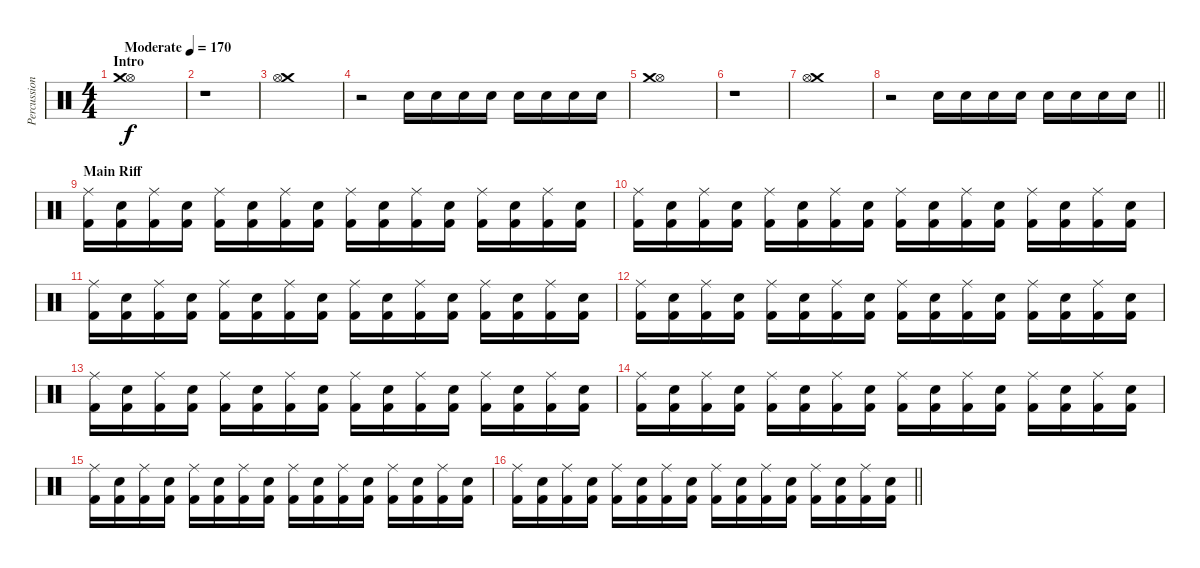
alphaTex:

\track ("Percussion" "Percussion") {instrument percussion}
\staff {score}
\articulation defaults
\ts (4 4)
\section ("" "Intro")
\tempo (170 "Moderate")
\clef neutral
\ks c
("Hi-Hat (open)" "Crash medium (hit)").1{dy f} |
r.1 |
("Crash medium (hit)" "Hi-Hat (open)").1 |
r.2 "Electric Snare (hit)".16 "Electric Snare (hit)".16 "Electric Snare (hit)".16 "Electric Snare (hit)".16 "Electric Snare (hit)".16 "Electric Snare (hit)".16 "Electric Snare (hit)".16 "Electric Snare (hit)".16 |
("Hi-Hat (open)" "Crash medium (hit)").1 |
r.1 |
("Crash medium (hit)" "Hi-Hat (open)").1 |
\barLineRight lightlight
r.2 "Electric Snare (hit)".16 "Electric Snare (hit)".16 "Electric Snare (hit)".16 "Electric Snare (hit)".16 "Electric Snare (hit)".16 "Electric Snare (hit)".16 "Electric Snare (hit)".16 "Electric Snare (hit)".16 |
\section ("" "Main Riff")
("Ride (middle)" "Kick (hit) 2").16 ("Electric Snare (hit)" "Kick (hit) 2").16 ("Ride (middle)" "Kick (hit) 2").16 ("Electric Snare (hit)" "Kick (hit) 2").16 ("Ride (middle)" "Kick (hit) 2").16 ("Electric Snare (hit)" "Kick (hit) 2").16 ("Ride (middle)" "Kick (hit) 2").16 ("Electric Snare (hit)" "Kick (hit) 2").16 ("Ride (middle)" "Kick (hit) 2").16 ("Electric Snare (hit)" "Kick (hit) 2").16 ("Ride (middle)" "Kick (hit) 2").16 ("Electric Snare (hit)" "Kick (hit) 2").16 ("Ride (middle)" "Kick (hit) 2").16 ("Electric Snare (hit)" "Kick (hit) 2").16 ("Ride (middle)" "Kick (hit) 2").16 ("Electric Snare (hit)" "Kick (hit) 2").16 |
("Ride (middle)" "Kick (hit) 2").16 ("Electric Snare (hit)" "Kick (hit) 2").16 ("Ride (middle)" "Kick (hit) 2").16 ("Electric Snare (hit)" "Kick (hit) 2").16 ("Ride (middle)" "Kick (hit) 2").16 ("Electric Snare (hit)" "Kick (hit) 2").16 ("Ride (middle)" "Kick (hit) 2").16 ("Electric Snare (hit)" "Kick (hit) 2").16 ("Ride (middle)" "Kick (hit) 2").16 ("Electric Snare (hit)" "Kick (hit) 2").16 ("Ride (middle)" "Kick (hit) 2").16 ("Electric Snare (hit)" "Kick (hit) 2").16 ("Ride (middle)" "Kick (hit) 2").16 ("Electric Snare (hit)" "Kick (hit) 2").16 ("Ride (middle)" "Kick (hit) 2").16 ("Electric Snare (hit)" "Kick (hit) 2").16 |
("Ride (middle)" "Kick (hit) 2").16 ("Electric Snare (hit)" "Kick (hit) 2").16 ("Ride (middle)" "Kick (hit) 2").16 ("Electric Snare (hit)" "Kick (hit) 2").16 ("Ride (middle)" "Kick (hit) 2").16 ("Electric Snare (hit)" "Kick (hit) 2").16 ("Ride (middle)" "Kick (hit) 2").16 ("Electric Snare (hit)" "Kick (hit) 2").16 ("Ride (middle)" "Kick (hit) 2").16 ("Electric Snare (hit)" "Kick (hit) 2").16 ("Ride (middle)" "Kick (hit) 2").16 ("Electric Snare (hit)" "Kick (hit) 2").16 ("Ride (middle)" "Kick (hit) 2").16 ("Electric Snare (hit)" "Kick (hit) 2").16 ("Ride (middle)" "Kick (hit) 2").16 ("Electric Snare (hit)" "Kick (hit) 2").16 |
("Ride (middle)" "Kick (hit) 2").16 ("Electric Snare (hit)" "Kick (hit) 2").16 ("Ride (middle)" "Kick (hit) 2").16 ("Electric Snare (hit)" "Kick (hit) 2").16 ("Ride (middle)" "Kick (hit) 2").16 ("Electric Snare (hit)" "Kick (hit) 2").16 ("Ride (middle)" "Kick (hit) 2").16 ("Electric Snare (hit)" "Kick (hit) 2").16 ("Ride (middle)" "Kick (hit) 2").16 ("Electric Snare (hit)" "Kick (hit) 2").16 ("Ride (middle)" "Kick (hit) 2").16 ("Electric Snare (hit)" "Kick (hit) 2").16 ("Ride (middle)" "Kick (hit) 2").16 ("Electric Snare (hit)" "Kick (hit) 2").16 ("Ride (middle)" "Kick (hit) 2").16 ("Electric Snare (hit)" "Kick (hit) 2").16 |
("Ride (middle)" "Kick (hit) 2").16 ("Electric Snare (hit)" "Kick (hit) 2").16 ("Ride (middle)" "Kick (hit) 2").16 ("Electric Snare (hit)" "Kick (hit) 2").16 ("Ride (middle)" "Kick (hit) 2").16 ("Electric Snare (hit)" "Kick (hit) 2").16 ("Ride (middle)" "Kick (hit) 2").16 ("Electric Snare (hit)" "Kick (hit) 2").16 ("Ride (middle)" "Kick (hit) 2").16 ("Electric Snare (hit)" "Kick (hit) 2").16 ("Ride (middle)" "Kick (hit) 2").16 ("Electric Snare (hit)" "Kick (hit) 2").16 ("Ride (middle)" "Kick (hit) 2").16 ("Electric Snare (hit)" "Kick (hit) 2").16 ("Ride (middle)" "Kick (hit) 2").16 ("Electric Snare (hit)" "Kick (hit) 2").16 |
("Ride (middle)" "Kick (hit) 2").16 ("Electric Snare (hit)" "Kick (hit) 2").16 ("Ride (middle)" "Kick (hit) 2").16 ("Electric Snare (hit)" "Kick (hit) 2").16 ("Ride (middle)" "Kick (hit) 2").16 ("Electric Snare (hit)" "Kick (hit) 2").16 ("Ride (middle)" "Kick (hit) 2").16 ("Electric Snare (hit)" "Kick (hit) 2").16 ("Ride (middle)" "Kick (hit) 2").16 ("Electric Snare (hit)" "Kick (hit) 2").16 ("Ride (middle)" "Kick (hit) 2").16 ("Electric Snare (hit)" "Kick (hit) 2").16 ("Ride (middle)" "Kick (hit) 2").16 ("Electric Snare (hit)" "Kick (hit) 2").16 ("Ride (middle)" "Kick (hit) 2").16 ("Electric Snare (hit)" "Kick (hit) 2").16 |
("Ride (middle)" "Kick (hit) 2").16 ("Electric Snare (hit)" "Kick (hit) 2").16 ("Ride (middle)" "Kick (hit) 2").16 ("Electric Snare (hit)" "Kick (hit) 2").16 ("Ride (middle)" "Kick (hit) 2").16 ("Electric Snare (hit)" "Kick (hit) 2").16 ("Ride (middle)" "Kick (hit) 2").16 ("Electric Snare (hit)" "Kick (hit) 2").16 ("Ride (middle)" "Kick (hit) 2").16 ("Electric Snare (hit)" "Kick (hit) 2").16 ("Ride (middle)" "Kick (hit) 2").16 ("Electric Snare (hit)" "Kick (hit) 2").16 ("Ride (middle)" "Kick (hit) 2").16 ("Electric Snare (hit)" "Kick (hit) 2").16 ("Ride (middle)" "Kick (hit) 2").16 ("Electric Snare (hit)" "Kick (hit) 2").16 |
\barLineRight lightlight
("Ride (middle)" "Kick (hit) 2").16 ("Electric Snare (hit)" "Kick (hit) 2").16 ("Ride (middle)" "Kick (hit) 2").16 ("Electric Snare (hit)" "Kick (hit) 2").16 ("Ride (middle)" "Kick (hit) 2").16 ("Electric Snare (hit)" "Kick (hit) 2").16 ("Ride (middle)" "Kick (hit) 2").16 ("Electric Snare (hit)" "Kick (hit) 2").16 ("Ride (middle)" "Kick (hit) 2").16 ("Electric Snare (hit)" "Kick (hit) 2").16 ("Ride (middle)" "Kick (hit) 2").16 ("Electric Snare (hit)" "Kick (hit) 2").16 ("Ride (middle)" "Kick (hit) 2").16 ("Electric Snare (hit)" "Kick (hit) 2").16 ("Ride (middle)" "Kick (hit) 2").16 ("Electric Snare (hit)" "Kick (hit) 2").16
